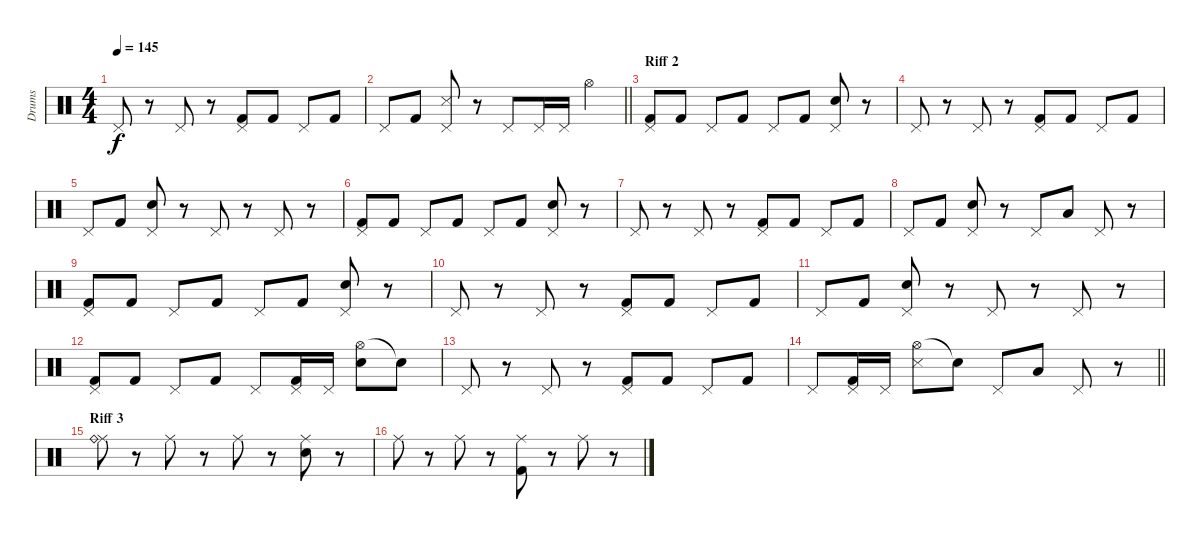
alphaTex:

\track ("Drums" "Drums") {instrument percussion}
\staff {score}
\articulation defaults
\ts (4 4)
\tempo 145
\clef neutral
\ks c "Pedal Hi-Hat (hit)".8{dy f}
r.8 "Pedal Hi-Hat (hit)".8 r.8 ("Pedal Hi-Hat (hit)" "Kick (hit) 2").8 "Kick (hit) 2".8 "Pedal Hi-Hat (hit)".8 "Kick (hit) 2".8 |
\barLineRight lightlight "Pedal Hi-Hat (hit)".8 "Kick (hit) 2".8
("Pedal Hi-Hat (hit)" "Snare (side stick) 3").8 r.8 "Pedal Hi-Hat (hit)".8 "Pedal Hi-Hat (hit)".16 "Pedal Hi-Hat (hit)".16 "Hi-Hat (open)".4 |
\section ("" "Riff 2")
("Pedal Hi-Hat (hit)" "Kick (hit) 2").8 "Kick (hit) 2".8 "Pedal Hi-Hat (hit)".8 "Kick (hit) 2".8 "Pedal Hi-Hat (hit)".8 "Kick (hit) 2".8 ("Pedal Hi-Hat (hit)" "Electric Snare (hit)").8 r.8 |
"Pedal Hi-Hat (hit)".8 r.8 "Pedal Hi-Hat (hit)".8 r.8 ("Pedal Hi-Hat (hit)" "Kick (hit) 2").8 "Kick (hit) 2".8 "Pedal Hi-Hat (hit)".8 "Kick (hit) 2".8 |
"Pedal Hi-Hat (hit)".8 "Kick (hit) 2".8 ("Pedal Hi-Hat (hit)" "Electric Snare (hit)").8 r.8 "Pedal Hi-Hat (hit)".8 r.8 "Pedal Hi-Hat (hit)".8 r.8 |
("Pedal Hi-Hat (hit)" "Kick (hit) 2").8 "Kick (hit) 2".8 "Pedal Hi-Hat (hit)".8 "Kick (hit) 2".8 "Pedal Hi-Hat (hit)".8 "Kick (hit) 2".8 ("Pedal Hi-Hat (hit)" "Electric Snare (hit)").8 r.8 |
"Pedal Hi-Hat (hit)".8 r.8 "Pedal Hi-Hat (hit)".8 r.8 ("Pedal Hi-Hat (hit)" "Kick (hit) 2").8 "Kick (hit) 2".8 "Pedal Hi-Hat (hit)".8 "Kick (hit) 2".8 |
"Pedal Hi-Hat (hit)".8 "Kick (hit) 2".8 ("Pedal Hi-Hat (hit)" "Electric Snare (hit)").8 r.8 "Pedal Hi-Hat (hit)".8 "Low Tom (hit)".8 "Pedal Hi-Hat (hit)".8 r.8 |
("Pedal Hi-Hat (hit)" "Kick (hit) 2").8 "Kick (hit) 2".8 "Pedal Hi-Hat (hit)".8 "Kick (hit) 2".8 "Pedal Hi-Hat (hit)".8 "Kick (hit) 2".8 ("Pedal Hi-Hat (hit)" "Electric Snare (hit)").8 r.8 |
"Pedal Hi-Hat (hit)".8 r.8 "Pedal Hi-Hat (hit)".8 r.8 ("Pedal Hi-Hat (hit)" "Kick (hit) 2").8 "Kick (hit) 2".8 "Pedal Hi-Hat (hit)".8 "Kick (hit) 2".8 |
"Pedal Hi-Hat (hit)".8 "Kick (hit) 2".8 ("Pedal Hi-Hat (hit)" "Electric Snare (hit)").8 r.8 "Pedal Hi-Hat (hit)".8 r.8 "Pedal Hi-Hat (hit)".8 r.8 |
("Pedal Hi-Hat (hit)" "Kick (hit) 2").8 "Kick (hit) 2".8 "Pedal Hi-Hat (hit)".8 "Kick (hit) 2".8 "Pedal Hi-Hat (hit)".8 ("Pedal Hi-Hat (hit)" "Kick (hit) 2").16 "Pedal Hi-Hat (hit)".16 ("Hi-Hat (open)" "Electric Snare (hit)").8 "Snare (hit)"{t}.8 |
"Pedal Hi-Hat (hit)".8 r.8 "Pedal Hi-Hat (hit)".8 r.8 ("Pedal Hi-Hat (hit)" "Kick (hit) 2").8 "Kick (hit) 2".8 "Pedal Hi-Hat (hit)".8 "Kick (hit) 2".8 |
\barLineRight lightlight "Pedal Hi-Hat (hit)".8
("Pedal Hi-Hat (hit)" "Kick (hit) 2").16 "Pedal Hi-Hat (hit)".16 ("Hi-Hat (open)" "Snare (side stick) 3").8 "Snare (hit)"{t}.8 "Pedal Hi-Hat (hit)".8 "Low Tom (hit)".8 "Pedal Hi-Hat (hit)".8 r.8 |
\section ("" "Riff 3")
("Ride (middle)" "Ride (bell)").8 r.8 "Ride (middle)".8 r.8 "Ride (middle)".8 r.8 ("Ride (middle)" "Electric Snare (hit)").8 r.8 |
"Ride (middle)".8 r.8 "Ride (middle)".8 r.8 ("Ride (middle)" "Kick (hit) 2").8 r.8 "Ride (middle)".8 r.8
